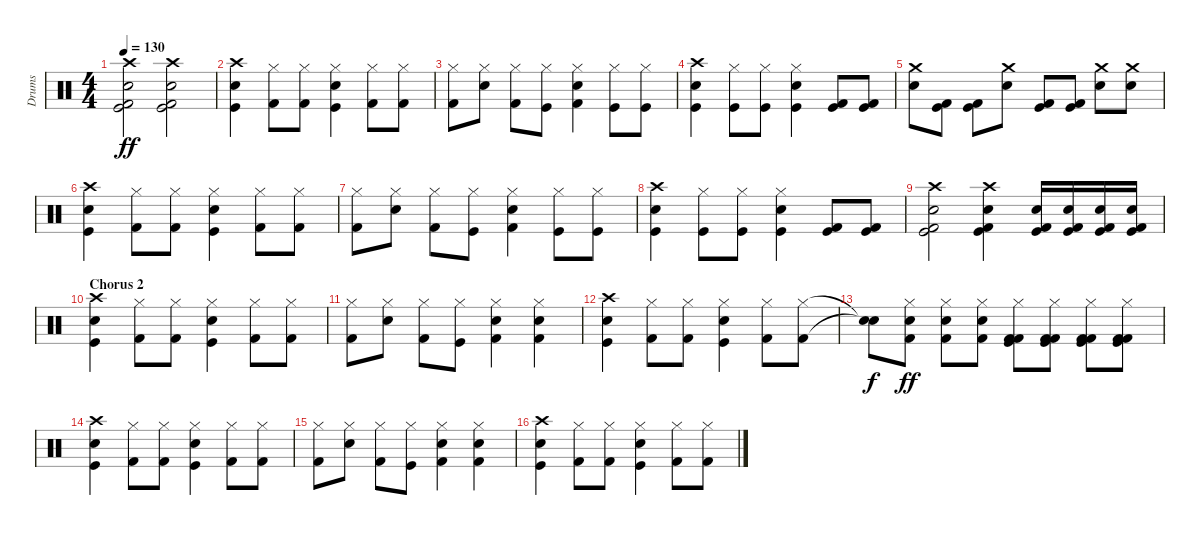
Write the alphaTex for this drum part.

\track ("Drums" "Drums") {instrument percussion}
\staff {score}
\articulation defaults
\ts (4 4)
\tempo 130
\clef neutral
\ks c
("Crash high (hit)" "Snare (hit) 2" "Kick (hit) 2" "Kick (hit)").2{dy ff} ("Crash high (hit)" "Snare (hit) 2" "Kick (hit) 2" "Kick (hit)").2 |
("Crash high (hit)" "Snare (hit) 2" "Kick (hit)").4 ("Hi-Hat (closed)" "Kick (hit) 2").8 ("Hi-Hat (closed)" "Kick (hit) 2").8 ("Hi-Hat (closed)" "Snare (hit) 2" "Kick (hit)").4 ("Hi-Hat (closed)" "Kick (hit) 2").8 ("Hi-Hat (closed)" "Kick (hit) 2").8 |
("Hi-Hat (closed)" "Kick (hit) 2").8 ("Hi-Hat (closed)" "Snare (hit) 2").8 ("Hi-Hat (closed)" "Kick (hit) 2").8 ("Hi-Hat (closed)" "Kick (hit)").8 ("Hi-Hat (closed)" "Kick (hit) 2" "Snare (hit) 2").4 ("Hi-Hat (closed)" "Kick (hit)").8 ("Hi-Hat (closed)" "Kick (hit)").8 |
("Crash high (hit)" "Snare (hit) 2" "Kick (hit)").4 ("Hi-Hat (closed)" "Kick (hit)").8 ("Hi-Hat (closed)" "Kick (hit)").8 ("Hi-Hat (closed)" "Snare (hit) 2" "Kick (hit)").4 ("Kick (hit) 2" "Kick (hit)").8 ("Kick (hit) 2" "Kick (hit)").8 |
("Crash medium (hit)" "Snare (hit) 2").8 ("Kick (hit) 2" "Kick (hit)").8 ("Kick (hit) 2" "Kick (hit)").8 ("Crash medium (hit)" "Snare (hit) 2").8 ("Kick (hit) 2" "Kick (hit)").8 ("Kick (hit) 2" "Kick (hit)").8 ("Crash medium (hit)" "Snare (hit) 2").8 ("Crash medium (hit)" "Snare (hit) 2").8 |
("Crash high (hit)" "Snare (hit) 2" "Kick (hit)").4 ("Hi-Hat (closed)" "Kick (hit) 2").8 ("Hi-Hat (closed)" "Kick (hit) 2").8 ("Hi-Hat (closed)" "Snare (hit) 2" "Kick (hit)").4 ("Hi-Hat (closed)" "Kick (hit) 2").8 ("Hi-Hat (closed)" "Kick (hit) 2").8 |
("Hi-Hat (closed)" "Kick (hit) 2").8 ("Hi-Hat (closed)" "Snare (hit) 2").8 ("Hi-Hat (closed)" "Kick (hit) 2").8 ("Hi-Hat (closed)" "Kick (hit)").8 ("Hi-Hat (closed)" "Kick (hit) 2" "Snare (hit) 2").4 ("Hi-Hat (closed)" "Kick (hit)").8 ("Hi-Hat (closed)" "Kick (hit)").8 |
("Crash high (hit)" "Snare (hit) 2" "Kick (hit)").4 ("Hi-Hat (closed)" "Kick (hit)").8 ("Hi-Hat (closed)" "Kick (hit)").8 ("Hi-Hat (closed)" "Snare (hit) 2" "Kick (hit)").4 ("Kick (hit) 2" "Kick (hit)").8 ("Kick (hit) 2" "Kick (hit)").8 |
("Crash high (hit)" "Snare (hit) 2" "Kick (hit) 2" "Kick (hit)").2 ("Crash high (hit)" "Snare (hit) 2" "Kick (hit) 2" "Kick (hit)").4 ("Kick (hit) 2" "Snare (hit) 2" "Kick (hit)").16 ("Kick (hit) 2" "Snare (hit) 2" "Kick (hit)").16 ("Kick (hit) 2" "Snare (hit) 2" "Kick (hit)").16 ("Kick (hit) 2" "Snare (hit) 2" "Kick (hit)").16 |
\section ("" "Chorus 2")
("Crash high (hit)" "Snare (hit) 2" "Kick (hit)").4 ("Hi-Hat (closed)" "Kick (hit) 2").8 ("Hi-Hat (closed)" "Kick (hit) 2").8 ("Hi-Hat (closed)" "Snare (hit) 2" "Kick (hit)").4 ("Hi-Hat (closed)" "Kick (hit) 2").8 ("Hi-Hat (closed)" "Kick (hit) 2").8 |
("Hi-Hat (closed)" "Kick (hit) 2").8 ("Hi-Hat (closed)" "Snare (hit) 2").8 ("Hi-Hat (closed)" "Kick (hit) 2").8 ("Hi-Hat (closed)" "Kick (hit)").8 ("Hi-Hat (closed)" "Kick (hit) 2" "Snare (hit) 2").4 ("Hi-Hat (closed)" "Kick (hit) 2" "Snare (hit) 2").4 |
("Crash high (hit)" "Snare (hit) 2" "Kick (hit)").4 ("Hi-Hat (closed)" "Kick (hit) 2").8 ("Hi-Hat (closed)" "Kick (hit) 2").8 ("Hi-Hat (closed)" "Snare (hit) 2" "Kick (hit)").4 ("Hi-Hat (closed)" "Kick (hit) 2").8 ("Hi-Hat (closed)" "Kick (hit) 2").8 |
("Snare (hit)"{t} "Snare (hit)"{t}).8{dy f} ("Hi-Hat (closed)" "Snare (hit) 2" "Kick (hit) 2").8{dy ff} ("Hi-Hat (closed)" "Snare (hit) 2" "Kick (hit) 2").8 ("Hi-Hat (closed)" "Snare (hit) 2" "Kick (hit) 2").8 ("Hi-Hat (closed)" "Kick (hit) 2" "Kick (hit) 2" "Kick (hit)").8 ("Hi-Hat (closed)" "Kick (hit) 2" "Kick (hit) 2" "Kick (hit)").8 ("Hi-Hat (closed)" "Kick (hit) 2" "Kick (hit) 2" "Kick (hit)").8 ("Hi-Hat (closed)" "Kick (hit) 2" "Kick (hit) 2" "Kick (hit)").8 |
("Crash high (hit)" "Snare (hit) 2" "Kick (hit)").4 ("Hi-Hat (closed)" "Kick (hit) 2").8 ("Hi-Hat (closed)" "Kick (hit) 2").8 ("Hi-Hat (closed)" "Snare (hit) 2" "Kick (hit)").4 ("Hi-Hat (closed)" "Kick (hit) 2").8 ("Hi-Hat (closed)" "Kick (hit) 2").8 |
("Hi-Hat (closed)" "Kick (hit) 2").8 ("Hi-Hat (closed)" "Snare (hit) 2").8 ("Hi-Hat (closed)" "Kick (hit) 2").8 ("Hi-Hat (closed)" "Kick (hit)").8 ("Hi-Hat (closed)" "Kick (hit) 2" "Snare (hit) 2").4 ("Hi-Hat (closed)" "Kick (hit) 2" "Snare (hit) 2").4 |
("Crash high (hit)" "Snare (hit) 2" "Kick (hit)").4 ("Hi-Hat (closed)" "Kick (hit) 2").8 ("Hi-Hat (closed)" "Kick (hit) 2").8 ("Hi-Hat (closed)" "Snare (hit) 2" "Kick (hit)").4 ("Hi-Hat (closed)" "Kick (hit) 2").8 ("Hi-Hat (closed)" "Kick (hit) 2").8
